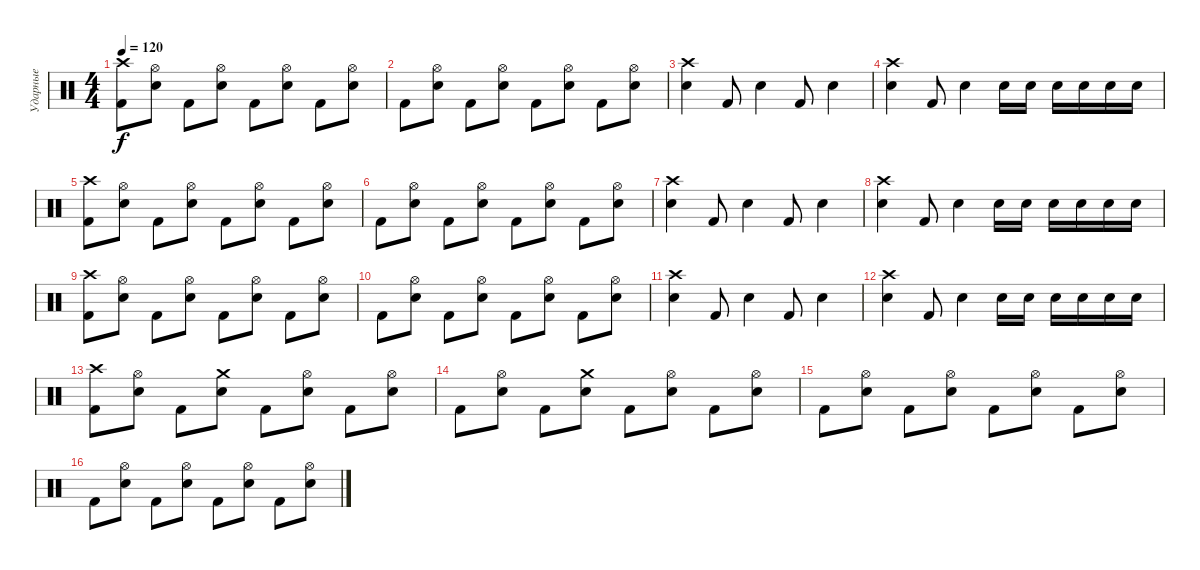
\track ("Ударные" "Ударные") {instrument percussion}
\staff {score}
\articulation defaults
\ts (4 4)
\tempo 120
\clef neutral
\ks c
("Crash high (hit)" "Kick (hit) 2").8{dy f} ("Hi-Hat (open)" "Snare (hit) 2").8 "Kick (hit) 2".8 ("Hi-Hat (open)" "Snare (hit) 2").8 "Kick (hit) 2".8 ("Hi-Hat (open)" "Snare (hit) 2").8 "Kick (hit) 2".8 ("Hi-Hat (open)" "Snare (hit) 2").8 |
"Kick (hit) 2".8 ("Hi-Hat (open)" "Snare (hit) 2").8 "Kick (hit) 2".8 ("Hi-Hat (open)" "Snare (hit) 2").8 "Kick (hit) 2".8 ("Hi-Hat (open)" "Snare (hit) 2").8 "Kick (hit) 2".8 ("Hi-Hat (open)" "Snare (hit) 2").8 |
("Snare (hit) 2" "Crash high (hit)").4 "Kick (hit) 2".8 "Snare (hit) 2".4 "Kick (hit) 2".8 "Snare (hit) 2".4 |
("Snare (hit) 2" "Crash high (hit)").4 "Kick (hit) 2".8 "Snare (hit) 2".4 "Snare (hit) 2".16 "Snare (hit) 2".16 "Snare (hit) 2".16 "Snare (hit) 2".16 "Snare (hit) 2".16 "Snare (hit) 2".16 |
("Crash high (hit)" "Kick (hit) 2").8 ("Hi-Hat (open)" "Snare (hit) 2").8 "Kick (hit) 2".8 ("Hi-Hat (open)" "Snare (hit) 2").8 "Kick (hit) 2".8 ("Hi-Hat (open)" "Snare (hit) 2").8 "Kick (hit) 2".8 ("Hi-Hat (open)" "Snare (hit) 2").8 |
"Kick (hit) 2".8 ("Hi-Hat (open)" "Snare (hit) 2").8 "Kick (hit) 2".8 ("Hi-Hat (open)" "Snare (hit) 2").8 "Kick (hit) 2".8 ("Hi-Hat (open)" "Snare (hit) 2").8 "Kick (hit) 2".8 ("Hi-Hat (open)" "Snare (hit) 2").8 |
("Snare (hit) 2" "Crash high (hit)").4 "Kick (hit) 2".8 "Snare (hit) 2".4 "Kick (hit) 2".8 "Snare (hit) 2".4 |
("Snare (hit) 2" "Crash high (hit)").4 "Kick (hit) 2".8 "Snare (hit) 2".4 "Snare (hit) 2".16 "Snare (hit) 2".16 "Snare (hit) 2".16 "Snare (hit) 2".16 "Snare (hit) 2".16 "Snare (hit) 2".16 |
("Crash high (hit)" "Kick (hit) 2").8 ("Hi-Hat (open)" "Snare (hit) 2").8 "Kick (hit) 2".8 ("Hi-Hat (open)" "Snare (hit) 2").8 "Kick (hit) 2".8 ("Hi-Hat (open)" "Snare (hit) 2").8 "Kick (hit) 2".8 ("Hi-Hat (open)" "Snare (hit) 2").8 |
"Kick (hit) 2".8 ("Hi-Hat (open)" "Snare (hit) 2").8 "Kick (hit) 2".8 ("Hi-Hat (open)" "Snare (hit) 2").8 "Kick (hit) 2".8 ("Hi-Hat (open)" "Snare (hit) 2").8 "Kick (hit) 2".8 ("Hi-Hat (open)" "Snare (hit) 2").8 |
("Snare (hit) 2" "Crash high (hit)").4 "Kick (hit) 2".8 "Snare (hit) 2".4 "Kick (hit) 2".8 "Snare (hit) 2".4 |
("Snare (hit) 2" "Crash high (hit)").4 "Kick (hit) 2".8 "Snare (hit) 2".4 "Snare (hit) 2".16 "Snare (hit) 2".16 "Snare (hit) 2".16 "Snare (hit) 2".16 "Snare (hit) 2".16 "Snare (hit) 2".16 |
("Crash high (hit)" "Kick (hit) 2").8 ("Hi-Hat (open)" "Snare (hit) 2").8 "Kick (hit) 2".8 ("Crash medium (hit)" "Snare (hit) 2").8 "Kick (hit) 2".8 ("Hi-Hat (open)" "Snare (hit) 2").8 "Kick (hit) 2".8 ("Hi-Hat (open)" "Snare (hit) 2").8 |
"Kick (hit) 2".8 ("Hi-Hat (open)" "Snare (hit) 2").8 "Kick (hit) 2".8 ("Crash medium (hit)" "Snare (hit) 2").8 "Kick (hit) 2".8 ("Hi-Hat (open)" "Snare (hit) 2").8 "Kick (hit) 2".8 ("Hi-Hat (open)" "Snare (hit) 2").8 |
"Kick (hit) 2".8 ("Hi-Hat (open)" "Snare (hit) 2").8 "Kick (hit) 2".8 ("Hi-Hat (open)" "Snare (hit) 2").8 "Kick (hit) 2".8 ("Hi-Hat (open)" "Snare (hit) 2").8 "Kick (hit) 2".8 ("Hi-Hat (open)" "Snare (hit) 2").8 |
"Kick (hit) 2".8 ("Hi-Hat (open)" "Snare (hit) 2").8 "Kick (hit) 2".8 ("Hi-Hat (open)" "Snare (hit) 2").8 "Kick (hit) 2".8 ("Hi-Hat (open)" "Snare (hit) 2").8 "Kick (hit) 2".8 ("Hi-Hat (open)" "Snare (hit) 2").8
